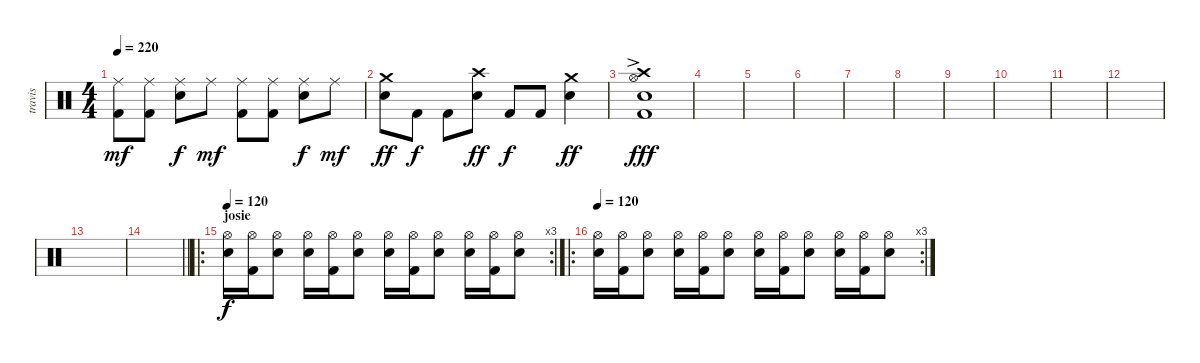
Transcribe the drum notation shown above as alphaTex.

\track ("travis" "travis") {instrument percussion}
\staff {score}
\articulation defaults
\ts (4 4)
\tempo 220
\clef neutral
\ks c
("Ride (middle)" "Kick (hit) 2").8{dy mf} ("Ride (middle)" "Kick (hit) 2").8 ("Ride (middle)" "Electric Snare (hit)").8{dy f} "Ride (middle)".8{dy mf} ("Ride (middle)" "Kick (hit) 2").8 ("Ride (middle)" "Kick (hit) 2").8 ("Ride (middle)" "Electric Snare (hit)").8{dy f} "Ride (middle)".8{dy mf} |
("Crash medium (hit)" "Electric Snare (hit)").8{dy ff} "Kick (hit) 2".8{dy f} "Kick (hit) 2".8 ("Crash high (hit)" "Electric Snare (hit)").8{dy ff} "Kick (hit) 2".8{dy f} "Kick (hit) 2".8 ("Crash medium (hit)" "Electric Snare (hit)").4{dy ff} |
("Crash high (hit)"{ac} "Hi-Hat (open)"{ac} "Electric Snare (hit)"{ac} "Kick (hit) 2"{ac}).1{dy fff} |
|
|
|
|
|
|
|
|
|
|
\barLineRight lightlight
|
\ro
\rc 3
\section ("" "josie")
\tempo 120
("Hi-Hat (open)" "Electric Snare (hit)").16{dy f volume 16} ("Hi-Hat (open)" "Kick (hit) 2").16 ("Hi-Hat (open)" "Electric Snare (hit)").8 ("Hi-Hat (open)" "Electric Snare (hit)").16 ("Hi-Hat (open)" "Kick (hit) 2").16 ("Hi-Hat (open)" "Electric Snare (hit)").8 ("Hi-Hat (open)" "Electric Snare (hit)").16 ("Hi-Hat (open)" "Kick (hit) 2").16 ("Hi-Hat (open)" "Electric Snare (hit)").8 ("Hi-Hat (open)" "Electric Snare (hit)").16 ("Hi-Hat (open)" "Kick (hit) 2").16 ("Hi-Hat (open)" "Electric Snare (hit)").8 |
\ro
\rc 3
\tempo 120
("Hi-Hat (open)" "Electric Snare (hit)").16{volume 16} ("Hi-Hat (open)" "Kick (hit) 2").16 ("Hi-Hat (open)" "Electric Snare (hit)").8 ("Hi-Hat (open)" "Electric Snare (hit)").16 ("Hi-Hat (open)" "Kick (hit) 2").16 ("Hi-Hat (open)" "Electric Snare (hit)").8 ("Hi-Hat (open)" "Electric Snare (hit)").16 ("Hi-Hat (open)" "Kick (hit) 2").16 ("Hi-Hat (open)" "Electric Snare (hit)").8 ("Hi-Hat (open)" "Electric Snare (hit)").16 ("Hi-Hat (open)" "Kick (hit) 2").16 ("Hi-Hat (open)" "Electric Snare (hit)").8
